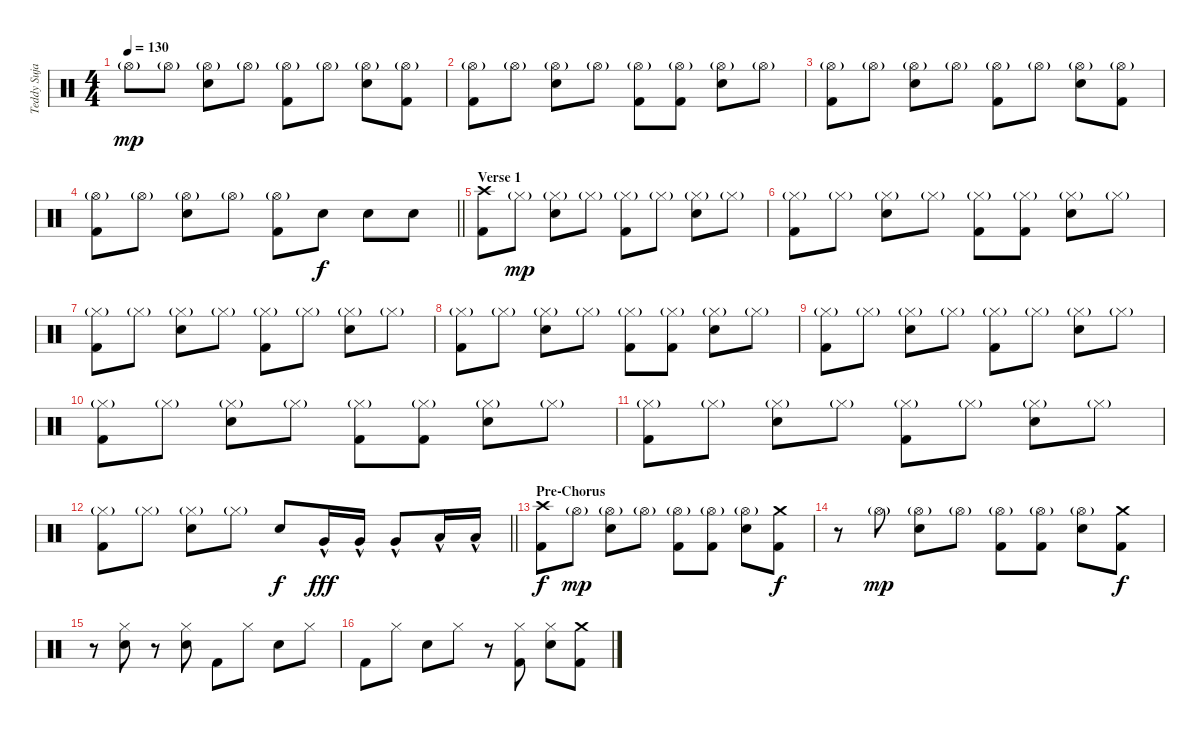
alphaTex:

\track ("Teddy Sujaya" "Teddy Suja") {instrument percussion}
\staff {score}
\articulation defaults
\ts (4 4)
\tempo 130
\clef neutral
\ks c "Hi-Hat (open)"{g}.8{dy mp} "Hi-Hat (open)"{g}.8
("Hi-Hat (open)"{g} "Electric Snare (hit)").8 "Hi-Hat (open)"{g}.8 ("Hi-Hat (open)"{g} "Kick (hit) 2").8 "Hi-Hat (open)"{g}.8 ("Hi-Hat (open)"{g} "Electric Snare (hit)").8 ("Hi-Hat (open)"{g} "Kick (hit) 2").8 |
("Hi-Hat (open)"{g} "Kick (hit) 2").8 "Hi-Hat (open)"{g}.8 ("Hi-Hat (open)"{g} "Electric Snare (hit)").8 "Hi-Hat (open)"{g}.8 ("Hi-Hat (open)"{g} "Kick (hit) 2").8 ("Hi-Hat (open)"{g} "Kick (hit) 2").8 ("Hi-Hat (open)"{g} "Electric Snare (hit)").8 "Hi-Hat (open)"{g}.8 |
("Hi-Hat (open)"{g} "Kick (hit) 2").8 "Hi-Hat (open)"{g}.8 ("Hi-Hat (open)"{g} "Electric Snare (hit)").8 "Hi-Hat (open)"{g}.8 ("Hi-Hat (open)"{g} "Kick (hit) 2").8 "Hi-Hat (open)"{g}.8 ("Hi-Hat (open)"{g} "Electric Snare (hit)").8 ("Hi-Hat (open)"{g} "Kick (hit) 2").8 |
\barLineRight lightlight
("Hi-Hat (open)"{g} "Kick (hit) 2").8 "Hi-Hat (open)"{g}.8 ("Hi-Hat (open)"{g} "Electric Snare (hit)").8 "Hi-Hat (open)"{g}.8 ("Hi-Hat (open)"{g} "Kick (hit) 2").8 "Electric Snare (hit)".8{dy f} "Electric Snare (hit)".8 "Electric Snare (hit)".8 |
\section ("" "Verse 1")
("Crash high (hit)" "Kick (hit) 2").8 "Hi-Hat (closed)"{g}.8{dy mp} ("Hi-Hat (closed)"{g} "Electric Snare (hit)").8 "Hi-Hat (closed)"{g}.8 ("Hi-Hat (closed)"{g} "Kick (hit) 2").8 "Hi-Hat (closed)"{g}.8 ("Hi-Hat (closed)"{g} "Electric Snare (hit)").8 "Hi-Hat (closed)"{g}.8 |
("Hi-Hat (closed)"{g} "Kick (hit) 2").8 "Hi-Hat (closed)"{g}.8 ("Hi-Hat (closed)"{g} "Electric Snare (hit)").8 "Hi-Hat (closed)"{g}.8 ("Hi-Hat (closed)"{g} "Kick (hit) 2").8 ("Hi-Hat (closed)"{g} "Kick (hit) 2").8 ("Hi-Hat (closed)"{g} "Electric Snare (hit)").8 "Hi-Hat (closed)"{g}.8 |
("Hi-Hat (closed)"{g} "Kick (hit) 2").8 "Hi-Hat (closed)"{g}.8 ("Hi-Hat (closed)"{g} "Electric Snare (hit)").8 "Hi-Hat (closed)"{g}.8 ("Hi-Hat (closed)"{g} "Kick (hit) 2").8 "Hi-Hat (closed)"{g}.8 ("Hi-Hat (closed)"{g} "Electric Snare (hit)").8 "Hi-Hat (closed)"{g}.8 |
("Hi-Hat (closed)"{g} "Kick (hit) 2").8 "Hi-Hat (closed)"{g}.8 ("Hi-Hat (closed)"{g} "Electric Snare (hit)").8 "Hi-Hat (closed)"{g}.8 ("Hi-Hat (closed)"{g} "Kick (hit) 2").8 ("Hi-Hat (closed)"{g} "Kick (hit) 2").8 ("Hi-Hat (closed)"{g} "Electric Snare (hit)").8 "Hi-Hat (closed)"{g}.8 |
("Hi-Hat (closed)"{g} "Kick (hit) 2").8 "Hi-Hat (closed)"{g}.8 ("Hi-Hat (closed)"{g} "Electric Snare (hit)").8 "Hi-Hat (closed)"{g}.8 ("Hi-Hat (closed)"{g} "Kick (hit) 2").8 "Hi-Hat (closed)"{g}.8 ("Hi-Hat (closed)"{g} "Electric Snare (hit)").8 "Hi-Hat (closed)"{g}.8 |
("Hi-Hat (closed)"{g} "Kick (hit) 2").8 "Hi-Hat (closed)"{g}.8 ("Hi-Hat (closed)"{g} "Electric Snare (hit)").8 "Hi-Hat (closed)"{g}.8 ("Hi-Hat (closed)"{g} "Kick (hit) 2").8 ("Hi-Hat (closed)"{g} "Kick (hit) 2").8 ("Hi-Hat (closed)"{g} "Electric Snare (hit)").8 "Hi-Hat (closed)"{g}.8 |
("Hi-Hat (closed)"{g} "Kick (hit) 2").8 "Hi-Hat (closed)"{g}.8 ("Hi-Hat (closed)"{g} "Electric Snare (hit)").8 "Hi-Hat (closed)"{g}.8 ("Hi-Hat (closed)"{g} "Kick (hit) 2").8 "Hi-Hat (closed)"{g}.8 ("Hi-Hat (closed)"{g} "Electric Snare (hit)").8 "Hi-Hat (closed)"{g}.8 |
\barLineRight lightlight
("Hi-Hat (closed)"{g} "Kick (hit) 2").8 "Hi-Hat (closed)"{g}.8 ("Hi-Hat (closed)"{g} "Electric Snare (hit)").8 "Hi-Hat (closed)"{g}.8 "Electric Snare (hit)".8{dy f} "Very Low Tom (hit)"{hac}.16{dy fff} "Very Low Tom (hit)"{hac}.16 "Very Low Tom (hit)"{hac}.8 "Low Floor Tom (hit)"{hac}.16 "Low Floor Tom (hit)"{hac}.16 |
\section ("" "Pre-Chorus")
("Crash high (hit)" "Kick (hit) 2").8{dy f} "Hi-Hat (open)"{g}.8{dy mp} ("Hi-Hat (open)"{g} "Electric Snare (hit)").8 "Hi-Hat (open)"{g}.8 ("Hi-Hat (open)"{g} "Kick (hit) 2").8 ("Hi-Hat (open)"{g} "Kick (hit) 2").8 ("Hi-Hat (open)"{g} "Electric Snare (hit)").8 ("Crash medium (hit)" "Kick (hit) 2").8{dy f} |
r.8 "Hi-Hat (open)"{g}.8{dy mp} ("Hi-Hat (open)"{g} "Electric Snare (hit)").8 "Hi-Hat (open)"{g}.8 ("Hi-Hat (open)"{g} "Kick (hit) 2").8 ("Hi-Hat (open)"{g} "Kick (hit) 2").8 ("Hi-Hat (open)"{g} "Electric Snare (hit)").8 ("Crash medium (hit)" "Kick (hit) 2").8{dy f} |
r.8 ("Hi-Hat (closed)" "Electric Snare (hit)").8 r.8 ("Hi-Hat (closed)" "Electric Snare (hit)").8 "Kick (hit) 2".8 "Hi-Hat (closed)".8 "Electric Snare (hit)".8 "Hi-Hat (closed)".8 |
"Kick (hit) 2".8 "Hi-Hat (closed)".8 "Electric Snare (hit)".8 "Hi-Hat (closed)".8 r.8 ("Hi-Hat (closed)" "Kick (hit) 2").8 ("Hi-Hat (closed)" "Electric Snare (hit)").8 ("Crash medium (hit)" "Kick (hit) 2").8
